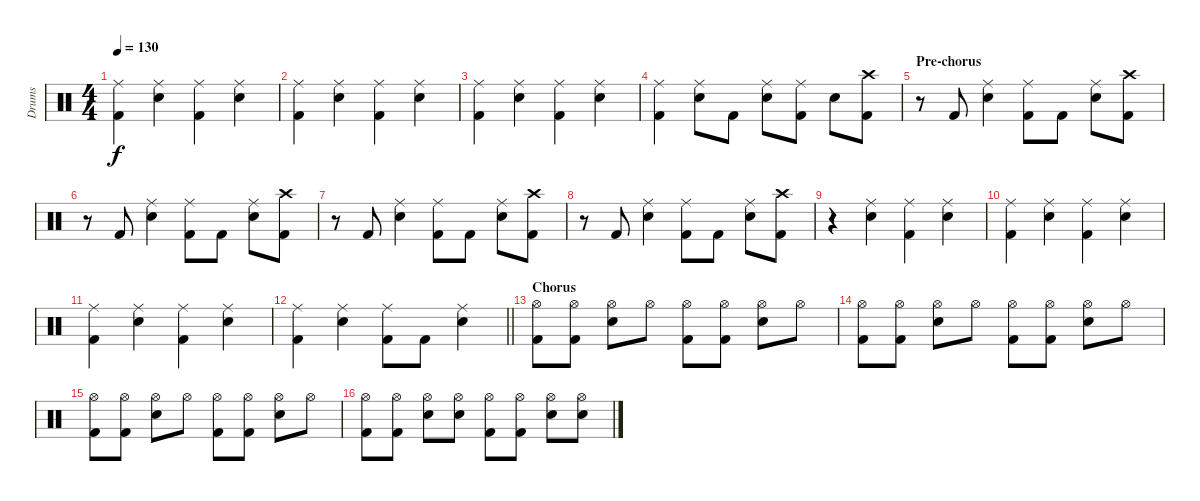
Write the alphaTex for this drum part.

\track ("Drums" "Drums") {instrument percussion}
\staff {score}
\articulation defaults
\ts (4 4)
\tempo 130
\clef neutral
\ks c
("Ride (middle)" "Kick (hit) 2").4{dy f} ("Ride (middle)" "Electric Snare (hit)").4 ("Ride (middle)" "Kick (hit) 2").4 ("Ride (middle)" "Electric Snare (hit)").4 |
("Ride (middle)" "Kick (hit) 2").4 ("Ride (middle)" "Electric Snare (hit)").4 ("Ride (middle)" "Kick (hit) 2").4 ("Ride (middle)" "Electric Snare (hit)").4 |
("Ride (middle)" "Kick (hit) 2").4 ("Ride (middle)" "Electric Snare (hit)").4 ("Ride (middle)" "Kick (hit) 2").4 ("Ride (middle)" "Electric Snare (hit)").4 |
("Ride (middle)" "Kick (hit) 2").4 ("Ride (middle)" "Electric Snare (hit)").8 "Kick (hit) 2".8 ("Ride (middle)" "Electric Snare (hit)").8 ("Ride (middle)" "Kick (hit) 2").8 "Electric Snare (hit)".8 ("Crash high (hit)" "Kick (hit) 2").8 |
\section ("" "Pre-chorus")
r.8 "Kick (hit) 2".8 ("Ride (middle)" "Electric Snare (hit)").4 ("Ride (middle)" "Kick (hit) 2").8 "Kick (hit) 2".8 ("Ride (middle)" "Electric Snare (hit)").8 ("Crash high (hit)" "Kick (hit) 2").8 |
r.8 "Kick (hit) 2".8 ("Ride (middle)" "Electric Snare (hit)").4 ("Ride (middle)" "Kick (hit) 2").8 "Kick (hit) 2".8 ("Ride (middle)" "Electric Snare (hit)").8 ("Crash high (hit)" "Kick (hit) 2").8 |
r.8 "Kick (hit) 2".8 ("Ride (middle)" "Electric Snare (hit)").4 ("Ride (middle)" "Kick (hit) 2").8 "Kick (hit) 2".8 ("Ride (middle)" "Electric Snare (hit)").8 ("Crash high (hit)" "Kick (hit) 2").8 |
r.8 "Kick (hit) 2".8 ("Ride (middle)" "Electric Snare (hit)").4 ("Ride (middle)" "Kick (hit) 2").8 "Kick (hit) 2".8 ("Ride (middle)" "Electric Snare (hit)").8 ("Crash high (hit)" "Kick (hit) 2").8 |
r.4 ("Ride (middle)" "Electric Snare (hit)").4 ("Ride (middle)" "Kick (hit) 2").4 ("Ride (middle)" "Electric Snare (hit)").4 |
("Ride (middle)" "Kick (hit) 2").4 ("Ride (middle)" "Electric Snare (hit)").4 ("Ride (middle)" "Kick (hit) 2").4 ("Ride (middle)" "Electric Snare (hit)").4 |
("Ride (middle)" "Kick (hit) 2").4 ("Ride (middle)" "Electric Snare (hit)").4 ("Ride (middle)" "Kick (hit) 2").4 ("Ride (middle)" "Electric Snare (hit)").4 |
\barLineRight lightlight
("Ride (middle)" "Kick (hit) 2").4 ("Ride (middle)" "Electric Snare (hit)").4 ("Ride (middle)" "Kick (hit) 2").8 "Kick (hit) 2".8 ("Ride (middle)" "Electric Snare (hit)").4 |
\section ("" "Chorus")
("Hi-Hat (open)" "Kick (hit) 2").8 ("Hi-Hat (open)" "Kick (hit) 2").8 ("Hi-Hat (open)" "Electric Snare (hit)").8 "Hi-Hat (open)".8 ("Hi-Hat (open)" "Kick (hit) 2").8 ("Hi-Hat (open)" "Kick (hit) 2").8 ("Hi-Hat (open)" "Electric Snare (hit)").8 "Hi-Hat (open)".8 |
("Hi-Hat (open)" "Kick (hit) 2").8 ("Hi-Hat (open)" "Kick (hit) 2").8 ("Hi-Hat (open)" "Electric Snare (hit)").8 "Hi-Hat (open)".8 ("Hi-Hat (open)" "Kick (hit) 2").8 ("Hi-Hat (open)" "Kick (hit) 2").8 ("Hi-Hat (open)" "Electric Snare (hit)").8 "Hi-Hat (open)".8 |
("Hi-Hat (open)" "Kick (hit) 2").8 ("Hi-Hat (open)" "Kick (hit) 2").8 ("Hi-Hat (open)" "Electric Snare (hit)").8 "Hi-Hat (open)".8 ("Hi-Hat (open)" "Kick (hit) 2").8 ("Hi-Hat (open)" "Kick (hit) 2").8 ("Hi-Hat (open)" "Electric Snare (hit)").8 "Hi-Hat (open)".8 |
("Hi-Hat (open)" "Kick (hit) 2").8 ("Hi-Hat (open)" "Kick (hit) 2").8 ("Hi-Hat (open)" "Electric Snare (hit)").8 ("Hi-Hat (open)" "Electric Snare (hit)").8 ("Hi-Hat (open)" "Kick (hit) 2").8 ("Hi-Hat (open)" "Kick (hit) 2").8 ("Hi-Hat (open)" "Electric Snare (hit)").8 ("Hi-Hat (open)" "Electric Snare (hit)").8
